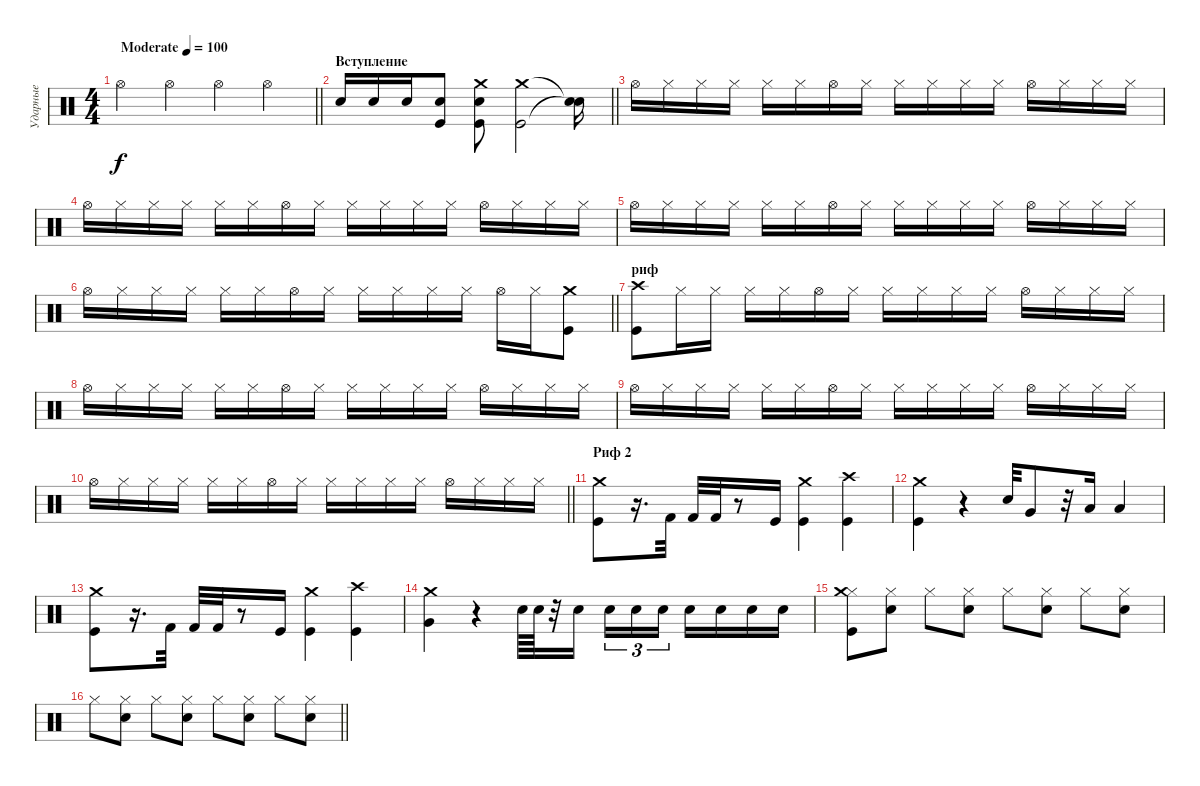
\track ("Ударные" "Ударные") {instrument percussion}
\staff {score}
\articulation defaults
\ts (4 4)
\tempo (100 "Moderate")
\clef neutral
\barLineRight lightlight
\ks c "Hi-Hat (open)".4{dy f} "Hi-Hat (open)".4 "Hi-Hat (open)".4 "Hi-Hat (open)".4
|
\section ("" "Вступление")
\barLineRight lightlight "Electric Snare (hit)".16 "Electric Snare (hit)".16 "Electric Snare (hit)".16
("Electric Snare (hit)" "Kick (hit)").8 ("Electric Snare (hit)" "Kick (hit)" "Crash medium (hit)").8 ("Kick (hit)" "Crash medium (hit)").2 ("Snare (hit)"{t} "Snare (hit)"{t}).16 |
"Hi-Hat (open)".16 "Hi-Hat (closed)".16 "Hi-Hat (closed)".16 "Hi-Hat (closed)".16 "Hi-Hat (closed)".16 "Hi-Hat (closed)".16 "Hi-Hat (open)".16 "Hi-Hat (closed)".16 "Hi-Hat (closed)".16 "Hi-Hat (closed)".16 "Hi-Hat (closed)".16 "Hi-Hat (closed)".16 "Hi-Hat (open)".16 "Hi-Hat (closed)".16 "Hi-Hat (closed)".16 "Hi-Hat (closed)".16 |
"Hi-Hat (open)".16 "Hi-Hat (closed)".16 "Hi-Hat (closed)".16 "Hi-Hat (closed)".16 "Hi-Hat (closed)".16 "Hi-Hat (closed)".16 "Hi-Hat (open)".16 "Hi-Hat (closed)".16 "Hi-Hat (closed)".16 "Hi-Hat (closed)".16 "Hi-Hat (closed)".16 "Hi-Hat (closed)".16 "Hi-Hat (open)".16 "Hi-Hat (closed)".16 "Hi-Hat (closed)".16 "Hi-Hat (closed)".16 |
"Hi-Hat (open)".16 "Hi-Hat (closed)".16 "Hi-Hat (closed)".16 "Hi-Hat (closed)".16 "Hi-Hat (closed)".16 "Hi-Hat (closed)".16 "Hi-Hat (open)".16 "Hi-Hat (closed)".16 "Hi-Hat (closed)".16 "Hi-Hat (closed)".16 "Hi-Hat (closed)".16 "Hi-Hat (closed)".16 "Hi-Hat (open)".16 "Hi-Hat (closed)".16 "Hi-Hat (closed)".16 "Hi-Hat (closed)".16 |
\barLineRight lightlight "Hi-Hat (open)".16 "Hi-Hat (closed)".16 "Hi-Hat (closed)".16 "Hi-Hat (closed)".16 "Hi-Hat (closed)".16 "Hi-Hat (closed)".16 "Hi-Hat (open)".16 "Hi-Hat (closed)".16 "Hi-Hat (closed)".16 "Hi-Hat (closed)".16 "Hi-Hat (closed)".16 "Hi-Hat (closed)".16 "Hi-Hat (open)".16 "Hi-Hat (closed)".16
("Kick (hit)" "Crash medium (hit)").8 |
\section ("" "риф")
("Kick (hit)" "Crash high (hit)").8 "Hi-Hat (closed)".16 "Hi-Hat (closed)".16 "Hi-Hat (closed)".16 "Hi-Hat (closed)".16 "Hi-Hat (open)".16 "Hi-Hat (closed)".16 "Hi-Hat (closed)".16 "Hi-Hat (closed)".16 "Hi-Hat (closed)".16 "Hi-Hat (closed)".16 "Hi-Hat (open)".16 "Hi-Hat (closed)".16 "Hi-Hat (closed)".16 "Hi-Hat (closed)".16 |
"Hi-Hat (open)".16 "Hi-Hat (closed)".16 "Hi-Hat (closed)".16 "Hi-Hat (closed)".16 "Hi-Hat (closed)".16 "Hi-Hat (closed)".16 "Hi-Hat (open)".16 "Hi-Hat (closed)".16 "Hi-Hat (closed)".16 "Hi-Hat (closed)".16 "Hi-Hat (closed)".16 "Hi-Hat (closed)".16 "Hi-Hat (open)".16 "Hi-Hat (closed)".16 "Hi-Hat (closed)".16 "Hi-Hat (closed)".16 |
"Hi-Hat (open)".16 "Hi-Hat (closed)".16 "Hi-Hat (closed)".16 "Hi-Hat (closed)".16 "Hi-Hat (closed)".16 "Hi-Hat (closed)".16 "Hi-Hat (open)".16 "Hi-Hat (closed)".16 "Hi-Hat (closed)".16 "Hi-Hat (closed)".16 "Hi-Hat (closed)".16 "Hi-Hat (closed)".16 "Hi-Hat (open)".16 "Hi-Hat (closed)".16 "Hi-Hat (closed)".16 "Hi-Hat (closed)".16 |
\barLineRight lightlight "Hi-Hat (open)".16 "Hi-Hat (closed)".16 "Hi-Hat (closed)".16 "Hi-Hat (closed)".16 "Hi-Hat (closed)".16 "Hi-Hat (closed)".16 "Hi-Hat (open)".16 "Hi-Hat (closed)".16 "Hi-Hat (closed)".16 "Hi-Hat (closed)".16 "Hi-Hat (closed)".16 "Hi-Hat (closed)".16 "Hi-Hat (open)".16 "Hi-Hat (closed)".16 "Hi-Hat (closed)".16 "Hi-Hat (closed)".16
|
\section ("" "Риф 2")
("Kick (hit)" "Crash medium (hit)").8 r.16{d} "Kick (hit) 2".32 "Kick (hit) 2".32 "Kick (hit) 2".32 r.8 "Kick (hit)".16 ("Kick (hit)" "Crash medium (hit)").4 ("Kick (hit)" "Crash high (hit)").4 |
("Kick (hit)" "Crash medium (hit)").4 r.4 "Snare (hit) 2".32 "Very Low Tom (hit)".8 r.32 "Low Tom (hit)".16 "Low Floor Tom (hit)".4 |
("Kick (hit)" "Crash medium (hit)").8 r.16{d} "Kick (hit) 2".32 "Kick (hit) 2".32 "Kick (hit) 2".32 r.8 "Kick (hit)".16 ("Kick (hit)" "Crash medium (hit)").4 ("Kick (hit)" "Crash high (hit)").4 |
("Crash medium (hit)" "Very Low Tom (hit)").4 r.4 "Electric Snare (hit)".64 "Electric Snare (hit)".64 r.32 "Electric Snare (hit)".16{beam splitsecondary} "Electric Snare (hit)".16{tu (3 2)} "Electric Snare (hit)".16{tu (3 2)} "Electric Snare (hit)".16{tu (3 2)} "Electric Snare (hit)".16 "Electric Snare (hit)".16 "Electric Snare (hit)".16 "Electric Snare (hit)".16 |
("Hi-Hat (closed)" "Kick (hit)" "Crash medium (hit)").8 ("Hi-Hat (closed)" "Snare (hit) 2").8 "Hi-Hat (closed)".8 ("Hi-Hat (closed)" "Snare (hit) 2").8 "Hi-Hat (closed)".8 ("Hi-Hat (closed)" "Snare (hit) 2").8 "Hi-Hat (closed)".8 ("Hi-Hat (closed)" "Snare (hit) 2").8 |
\barLineRight lightlight "Hi-Hat (closed)".8
("Hi-Hat (closed)" "Snare (hit) 2").8 "Hi-Hat (closed)".8 ("Hi-Hat (closed)" "Snare (hit) 2").8 "Hi-Hat (closed)".8 ("Hi-Hat (closed)" "Snare (hit) 2").8 "Hi-Hat (closed)".8 ("Hi-Hat (closed)" "Snare (hit) 2").8
